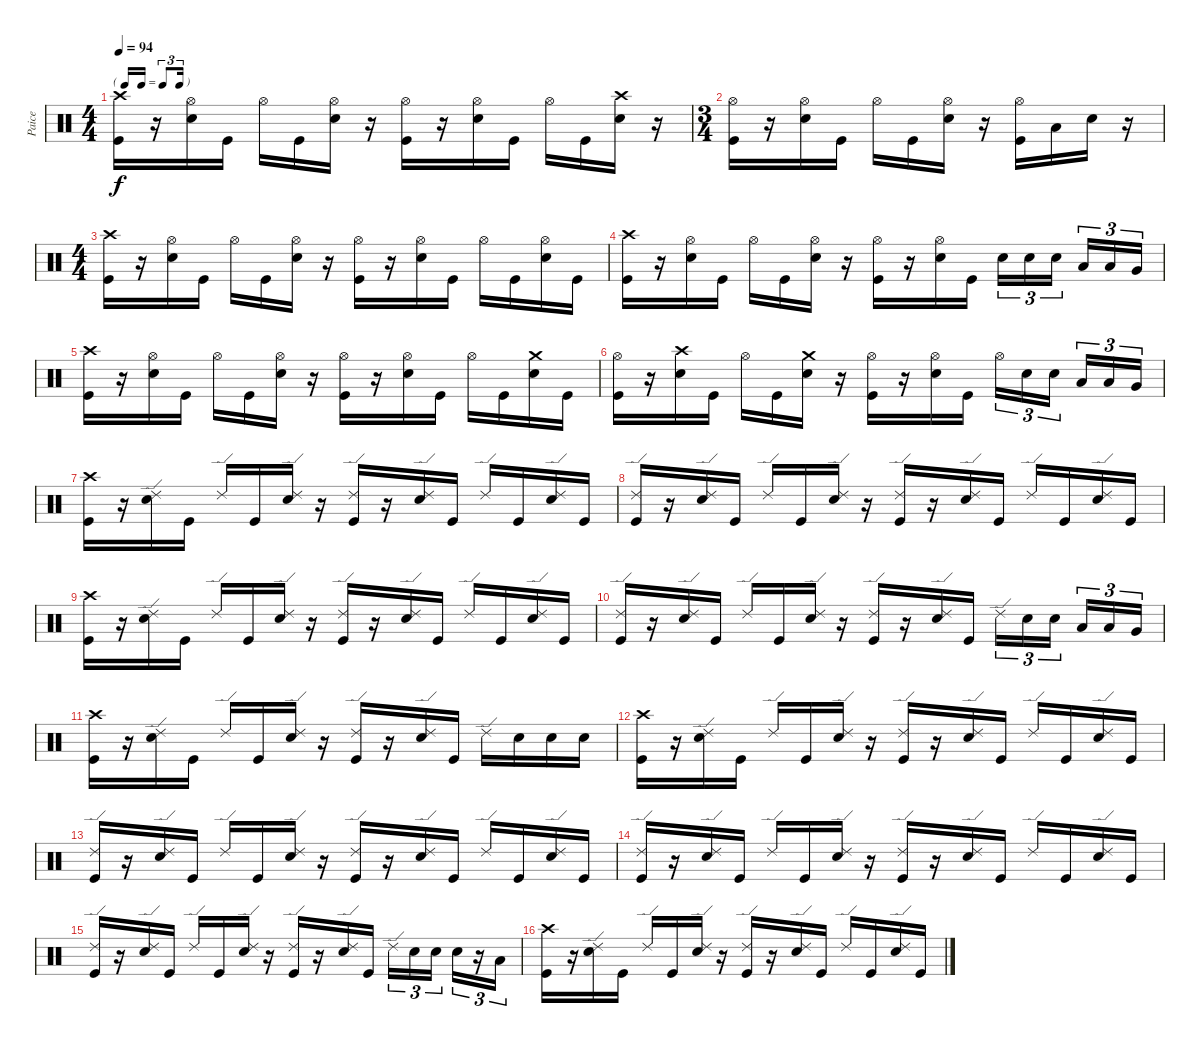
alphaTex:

\track ("Paice" "Paice") {instrument percussion}
\staff {score}
\articulation defaults
\ts (4 4)
\tf triplet16th
\tempo 94
\clef neutral
\ks c
("Crash high (hit)" "Kick (hit)").16{dy f} r.16 ("Hi-Hat (open)" "Snare (hit) 2").16 "Kick (hit)".16 "Hi-Hat (open)".16 "Kick (hit)".16 ("Hi-Hat (open)" "Snare (hit) 2").16 r.16 ("Hi-Hat (open)" "Kick (hit)").16 r.16 ("Hi-Hat (open)" "Snare (hit) 2").16 "Kick (hit)".16 "Hi-Hat (open)".16 "Kick (hit)".16 ("Crash high (hit)" "Snare (hit) 2").16 r.16 |
\ts (3 4)
("Hi-Hat (open)" "Kick (hit)").16 r.16 ("Hi-Hat (open)" "Snare (hit) 2").16 "Kick (hit)".16 "Hi-Hat (open)".16 "Kick (hit)".16 ("Hi-Hat (open)" "Snare (hit) 2").16 r.16 ("Hi-Hat (open)" "Kick (hit)").16 "Low Tom (hit)".16 "Snare (hit) 2".16 r.16 |
\ts (4 4)
("Crash high (hit)" "Kick (hit)").16 r.16 ("Hi-Hat (open)" "Snare (hit) 2").16 "Kick (hit)".16 "Hi-Hat (open)".16 "Kick (hit)".16 ("Hi-Hat (open)" "Snare (hit) 2").16 r.16 ("Hi-Hat (open)" "Kick (hit)").16 r.16 ("Hi-Hat (open)" "Snare (hit) 2").16 "Kick (hit)".16 "Hi-Hat (open)".16 "Kick (hit)".16 ("Hi-Hat (open)" "Snare (hit) 2").16 "Kick (hit)".16 |
("Crash high (hit)" "Kick (hit)").16 r.16 ("Hi-Hat (open)" "Snare (hit) 2").16 "Kick (hit)".16 "Hi-Hat (open)".16 "Kick (hit)".16 ("Hi-Hat (open)" "Snare (hit) 2").16 r.16 ("Hi-Hat (open)" "Kick (hit)").16 r.16 ("Hi-Hat (open)" "Snare (hit) 2").16 "Kick (hit)".16 "Snare (hit) 2".16{tu (3 2)} "Snare (hit) 2".16{tu (3 2)} "Snare (hit) 2".16{tu (3 2) beam splitsecondary} "Low Tom (hit)".16{tu (3 2)} "Low Tom (hit)".16{tu (3 2)} "Very Low Tom (hit)".16{tu (3 2)} |
("Crash high (hit)" "Kick (hit)").16 r.16 ("Hi-Hat (open)" "Snare (hit) 2").16 "Kick (hit)".16 "Hi-Hat (open)".16 "Kick (hit)".16 ("Hi-Hat (open)" "Snare (hit) 2").16 r.16 ("Hi-Hat (open)" "Kick (hit)").16 r.16 ("Hi-Hat (open)" "Snare (hit) 2").16 "Kick (hit)".16 "Hi-Hat (open)".16 "Kick (hit)".16 ("Crash medium (hit)" "Snare (hit) 2").16 "Kick (hit)".16 |
("Hi-Hat (open)" "Kick (hit)").16 r.16 ("Crash high (hit)" "Snare (hit) 2").16 "Kick (hit)".16 "Hi-Hat (open)".16 "Kick (hit)".16 ("Crash medium (hit)" "Snare (hit) 2").16 r.16 ("Hi-Hat (open)" "Kick (hit)").16 r.16 ("Hi-Hat (open)" "Snare (hit) 2").16 "Kick (hit)".16 "Hi-Hat (open)".16{tu (3 2)} "Snare (hit) 2".16{tu (3 2)} "Snare (hit) 2".16{tu (3 2) beam splitsecondary} "Low Tom (hit)".16{tu (3 2)} "Low Tom (hit)".16{tu (3 2)} "Very Low Tom (hit)".16{tu (3 2)} |
("Crash high (hit)" "Kick (hit)").16 r.16 ("Ride (edge) 2" "Snare (hit) 2").16 "Kick (hit)".16 "Ride (edge) 2".16 "Kick (hit)".16 ("Ride (edge) 2" "Snare (hit) 2").16 r.16 ("Ride (edge) 2" "Kick (hit)").16 r.16 ("Ride (edge) 2" "Snare (hit) 2").16 "Kick (hit)".16 "Ride (edge) 2".16 "Kick (hit)".16 ("Ride (edge) 2" "Snare (hit) 2").16 "Kick (hit)".16 |
("Ride (edge) 2" "Kick (hit)").16 r.16 ("Ride (edge) 2" "Snare (hit) 2").16 "Kick (hit)".16 "Ride (edge) 2".16 "Kick (hit)".16 ("Ride (edge) 2" "Snare (hit) 2").16 r.16 ("Ride (edge) 2" "Kick (hit)").16 r.16 ("Ride (edge) 2" "Snare (hit) 2").16 "Kick (hit)".16 "Ride (edge) 2".16 "Kick (hit)".16 ("Ride (edge) 2" "Snare (hit) 2").16 "Kick (hit)".16 |
("Crash high (hit)" "Kick (hit)").16 r.16 ("Ride (edge) 2" "Snare (hit) 2").16 "Kick (hit)".16 "Ride (edge) 2".16 "Kick (hit)".16 ("Ride (edge) 2" "Snare (hit) 2").16 r.16 ("Ride (edge) 2" "Kick (hit)").16 r.16 ("Ride (edge) 2" "Snare (hit) 2").16 "Kick (hit)".16 "Ride (edge) 2".16 "Kick (hit)".16 ("Ride (edge) 2" "Snare (hit) 2").16 "Kick (hit)".16 |
("Ride (edge) 2" "Kick (hit)").16 r.16 ("Ride (edge) 2" "Snare (hit) 2").16 "Kick (hit)".16 "Ride (edge) 2".16 "Kick (hit)".16 ("Ride (edge) 2" "Snare (hit) 2").16 r.16 ("Ride (edge) 2" "Kick (hit)").16 r.16 ("Ride (edge) 2" "Snare (hit) 2").16 "Kick (hit)".16 "Ride (edge) 2".16{tu (3 2)} "Snare (hit) 2".16{tu (3 2)} "Snare (hit) 2".16{tu (3 2) beam splitsecondary} "Low Tom (hit)".16{tu (3 2)} "Low Tom (hit)".16{tu (3 2)} "Very Low Tom (hit)".16{tu (3 2)} |
("Crash high (hit)" "Kick (hit)").16 r.16 ("Ride (edge) 2" "Snare (hit) 2").16 "Kick (hit)".16 "Ride (edge) 2".16 "Kick (hit)".16 ("Ride (edge) 2" "Snare (hit) 2").16 r.16 ("Ride (edge) 2" "Kick (hit)").16 r.16 ("Ride (edge) 2" "Snare (hit) 2").16 "Kick (hit)".16 "Ride (edge) 2".16 "Snare (hit) 2".16 "Snare (hit) 2".16 "Snare (hit) 2".16 |
("Crash high (hit)" "Kick (hit)").16 r.16 ("Ride (edge) 2" "Snare (hit) 2").16 "Kick (hit)".16 "Ride (edge) 2".16 "Kick (hit)".16 ("Ride (edge) 2" "Snare (hit) 2").16 r.16 ("Ride (edge) 2" "Kick (hit)").16 r.16 ("Ride (edge) 2" "Snare (hit) 2").16 "Kick (hit)".16 "Ride (edge) 2".16 "Kick (hit)".16 ("Ride (edge) 2" "Snare (hit) 2").16 "Kick (hit)".16 |
("Ride (edge) 2" "Kick (hit)").16 r.16 ("Ride (edge) 2" "Snare (hit) 2").16 "Kick (hit)".16 "Ride (edge) 2".16 "Kick (hit)".16 ("Ride (edge) 2" "Snare (hit) 2").16 r.16 ("Ride (edge) 2" "Kick (hit)").16 r.16 ("Ride (edge) 2" "Snare (hit) 2").16 "Kick (hit)".16 "Ride (edge) 2".16 "Kick (hit)".16 ("Ride (edge) 2" "Snare (hit) 2").16 "Kick (hit)".16 |
("Ride (edge) 2" "Kick (hit)").16 r.16 ("Ride (edge) 2" "Snare (hit) 2").16 "Kick (hit)".16 "Ride (edge) 2".16 "Kick (hit)".16 ("Ride (edge) 2" "Snare (hit) 2").16 r.16 ("Ride (edge) 2" "Kick (hit)").16 r.16 ("Ride (edge) 2" "Snare (hit) 2").16 "Kick (hit)".16 "Ride (edge) 2".16 "Kick (hit)".16 ("Ride (edge) 2" "Snare (hit) 2").16 "Kick (hit)".16 |
("Ride (edge) 2" "Kick (hit)").16 r.16 ("Ride (edge) 2" "Snare (hit) 2").16 "Kick (hit)".16 "Ride (edge) 2".16 "Kick (hit)".16 ("Ride (edge) 2" "Snare (hit) 2").16 r.16 ("Ride (edge) 2" "Kick (hit)").16 r.16 ("Ride (edge) 2" "Snare (hit) 2").16 "Kick (hit)".16 "Ride (edge) 2".16{tu (3 2)} "Snare (hit) 2".16{tu (3 2)} "Snare (hit) 2".16{tu (3 2) beam splitsecondary} "Snare (hit) 2".16{tu (3 2)} r.16{tu (3 2)} "Low Tom (hit)".16{tu (3 2)} |
("Crash high (hit)" "Kick (hit)").16 r.16 ("Ride (edge) 2" "Snare (hit) 2").16 "Kick (hit)".16 "Ride (edge) 2".16 "Kick (hit)".16 ("Ride (edge) 2" "Snare (hit) 2").16 r.16 ("Ride (edge) 2" "Kick (hit)").16 r.16 ("Ride (edge) 2" "Snare (hit) 2").16 "Kick (hit)".16 "Ride (edge) 2".16 "Kick (hit)".16 ("Ride (edge) 2" "Snare (hit) 2").16 "Kick (hit)".16
